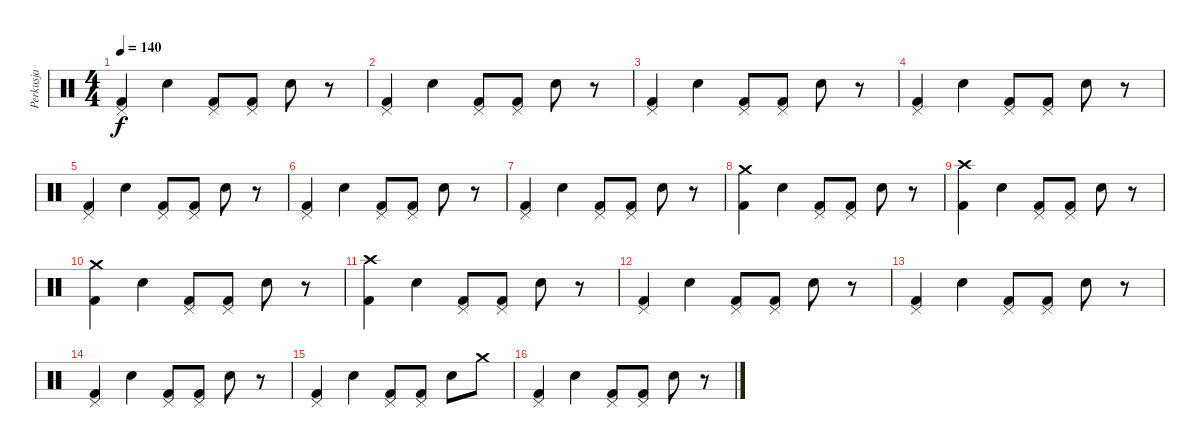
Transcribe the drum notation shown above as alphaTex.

\track ("Perkusja" "Perkusja") {instrument percussion}
\staff {score}
\articulation defaults
\ts (4 4)
\tempo 140
\clef neutral
\ks c
("Pedal Hi-Hat (hit)" "Kick (hit) 2").4{dy f} "Snare (hit) 2".4 ("Pedal Hi-Hat (hit)" "Kick (hit) 2").8 ("Pedal Hi-Hat (hit)" "Kick (hit) 2").8 "Snare (hit) 2".8 r.8 |
("Pedal Hi-Hat (hit)" "Kick (hit) 2").4 "Snare (hit) 2".4 ("Pedal Hi-Hat (hit)" "Kick (hit) 2").8 ("Pedal Hi-Hat (hit)" "Kick (hit) 2").8 "Snare (hit) 2".8 r.8 |
("Pedal Hi-Hat (hit)" "Kick (hit) 2").4 "Snare (hit) 2".4 ("Pedal Hi-Hat (hit)" "Kick (hit) 2").8 ("Pedal Hi-Hat (hit)" "Kick (hit) 2").8 "Snare (hit) 2".8 r.8 |
("Pedal Hi-Hat (hit)" "Kick (hit) 2").4 "Snare (hit) 2".4 ("Pedal Hi-Hat (hit)" "Kick (hit) 2").8 ("Pedal Hi-Hat (hit)" "Kick (hit) 2").8 "Snare (hit) 2".8 r.8 |
("Pedal Hi-Hat (hit)" "Kick (hit) 2").4 "Snare (hit) 2".4 ("Pedal Hi-Hat (hit)" "Kick (hit) 2").8 ("Pedal Hi-Hat (hit)" "Kick (hit) 2").8 "Snare (hit) 2".8 r.8 |
("Pedal Hi-Hat (hit)" "Kick (hit) 2").4 "Snare (hit) 2".4 ("Pedal Hi-Hat (hit)" "Kick (hit) 2").8 ("Pedal Hi-Hat (hit)" "Kick (hit) 2").8 "Snare (hit) 2".8 r.8 |
("Pedal Hi-Hat (hit)" "Kick (hit) 2").4 "Snare (hit) 2".4 ("Pedal Hi-Hat (hit)" "Kick (hit) 2").8 ("Pedal Hi-Hat (hit)" "Kick (hit) 2").8 "Snare (hit) 2".8 r.8 |
("Crash medium (hit)" "Kick (hit) 2").4 "Snare (hit) 2".4 ("Pedal Hi-Hat (hit)" "Kick (hit) 2").8 ("Pedal Hi-Hat (hit)" "Kick (hit) 2").8 "Snare (hit) 2".8 r.8 |
("Crash high (hit)" "Kick (hit) 2").4 "Snare (hit) 2".4 ("Pedal Hi-Hat (hit)" "Kick (hit) 2").8 ("Pedal Hi-Hat (hit)" "Kick (hit) 2").8 "Snare (hit) 2".8 r.8 |
("Crash medium (hit)" "Kick (hit) 2").4 "Snare (hit) 2".4 ("Pedal Hi-Hat (hit)" "Kick (hit) 2").8 ("Pedal Hi-Hat (hit)" "Kick (hit) 2").8 "Snare (hit) 2".8 r.8 |
("Crash high (hit)" "Kick (hit) 2").4 "Snare (hit) 2".4 ("Pedal Hi-Hat (hit)" "Kick (hit) 2").8 ("Pedal Hi-Hat (hit)" "Kick (hit) 2").8 "Snare (hit) 2".8 r.8 |
("Pedal Hi-Hat (hit)" "Kick (hit) 2").4 "Snare (hit) 2".4 ("Pedal Hi-Hat (hit)" "Kick (hit) 2").8 ("Pedal Hi-Hat (hit)" "Kick (hit) 2").8 "Snare (hit) 2".8 r.8 |
("Pedal Hi-Hat (hit)" "Kick (hit) 2").4 "Snare (hit) 2".4 ("Pedal Hi-Hat (hit)" "Kick (hit) 2").8 ("Pedal Hi-Hat (hit)" "Kick (hit) 2").8 "Snare (hit) 2".8 r.8 |
("Pedal Hi-Hat (hit)" "Kick (hit) 2").4 "Snare (hit) 2".4 ("Pedal Hi-Hat (hit)" "Kick (hit) 2").8 ("Pedal Hi-Hat (hit)" "Kick (hit) 2").8 "Snare (hit) 2".8 r.8 |
("Pedal Hi-Hat (hit)" "Kick (hit) 2").4 "Snare (hit) 2".4 ("Pedal Hi-Hat (hit)" "Kick (hit) 2").8 ("Pedal Hi-Hat (hit)" "Kick (hit) 2").8 "Snare (hit) 2".8 "Crash medium (hit)".8 |
("Pedal Hi-Hat (hit)" "Kick (hit) 2").4 "Snare (hit) 2".4 ("Pedal Hi-Hat (hit)" "Kick (hit) 2").8 ("Pedal Hi-Hat (hit)" "Kick (hit) 2").8 "Snare (hit) 2".8 r.8
